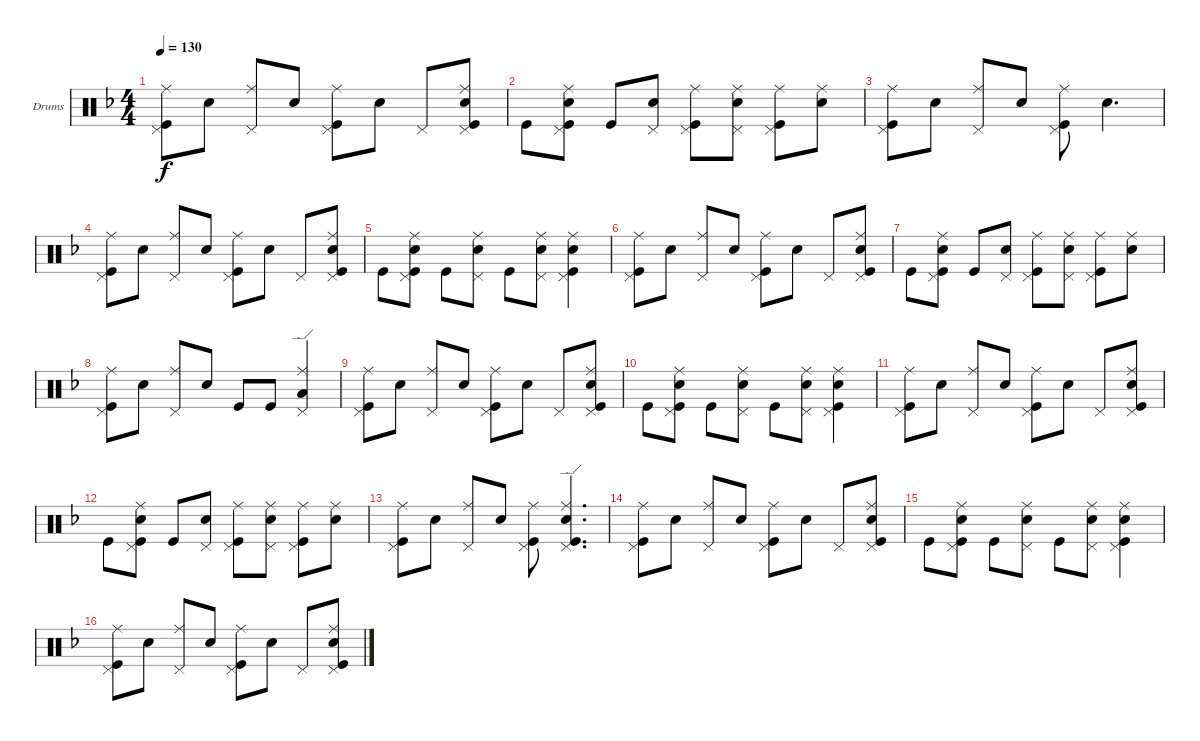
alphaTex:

\defaultSystemsLayout 4
\bracketExtendMode groupsimilarinstruments
\firstSystemTrackNameOrientation horizontal
\otherSystemsTrackNameOrientation horizontal
\track ("Drumkit" "Drums") {instrument percussion}
\staff {score}
\articulation defaults
\ts (4 4)
\tempo 130
\clef neutral
\ks f
("Ride (middle)" "Pedal Hi-Hat (hit)" "Kick (hit)").8{dy f} "Snare (hit) 2".8 ("Ride (middle)" "Pedal Hi-Hat (hit)").8 "Snare (hit) 2".8 ("Pedal Hi-Hat (hit)" "Kick (hit)" "Ride (middle)").8 "Snare (hit) 2".8 "Pedal Hi-Hat (hit)".8 ("Pedal Hi-Hat (hit)" "Snare (hit) 2" "Kick (hit)" "Ride (middle)").8 |
"Kick (hit)".8 ("Ride (middle)" "Pedal Hi-Hat (hit)" "Snare (hit) 2" "Kick (hit)").8 "Kick (hit)".8 ("Pedal Hi-Hat (hit)" "Snare (hit) 2").8 ("Kick (hit)" "Pedal Hi-Hat (hit)" "Ride (middle)").8 ("Pedal Hi-Hat (hit)" "Snare (hit) 2" "Ride (middle)").8 ("Ride (middle)" "Kick (hit)" "Pedal Hi-Hat (hit)").8 ("Ride (middle)" "Snare (hit) 2").8 |
("Ride (middle)" "Pedal Hi-Hat (hit)" "Kick (hit)").8 "Snare (hit) 2".8 ("Ride (middle)" "Pedal Hi-Hat (hit)").8 "Snare (hit) 2".8 ("Pedal Hi-Hat (hit)" "Kick (hit)" "Ride (middle)").8 "Snare (hit) 2".4{d} |
("Ride (middle)" "Pedal Hi-Hat (hit)" "Kick (hit)").8 "Snare (hit) 2".8 ("Ride (middle)" "Pedal Hi-Hat (hit)").8 "Snare (hit) 2".8 ("Pedal Hi-Hat (hit)" "Kick (hit)" "Ride (middle)").8 "Snare (hit) 2".8 "Pedal Hi-Hat (hit)".8 ("Pedal Hi-Hat (hit)" "Snare (hit) 2" "Kick (hit)" "Ride (middle)").8 |
"Kick (hit)".8 ("Ride (middle)" "Pedal Hi-Hat (hit)" "Snare (hit) 2" "Kick (hit)").8 "Kick (hit)".8 ("Ride (middle)" "Pedal Hi-Hat (hit)" "Snare (hit) 2").8 "Kick (hit)".8 ("Pedal Hi-Hat (hit)" "Snare (hit) 2" "Ride (middle)").8 ("Ride (middle)" "Snare (hit) 2" "Kick (hit)" "Pedal Hi-Hat (hit)").4 |
("Ride (middle)" "Pedal Hi-Hat (hit)" "Kick (hit)").8 "Snare (hit) 2".8 ("Ride (middle)" "Pedal Hi-Hat (hit)").8 "Snare (hit) 2".8 ("Pedal Hi-Hat (hit)" "Kick (hit)" "Ride (middle)").8 "Snare (hit) 2".8 "Pedal Hi-Hat (hit)".8 ("Pedal Hi-Hat (hit)" "Snare (hit) 2" "Kick (hit)" "Ride (middle)").8 |
"Kick (hit)".8 ("Ride (middle)" "Pedal Hi-Hat (hit)" "Snare (hit) 2" "Kick (hit)").8 "Kick (hit)".8 ("Pedal Hi-Hat (hit)" "Snare (hit) 2").8 ("Kick (hit)" "Pedal Hi-Hat (hit)" "Ride (middle)").8 ("Pedal Hi-Hat (hit)" "Snare (hit) 2" "Ride (middle)").8 ("Ride (middle)" "Kick (hit)" "Pedal Hi-Hat (hit)").8 ("Ride (middle)" "Snare (hit) 2").8 |
("Ride (middle)" "Pedal Hi-Hat (hit)" "Kick (hit)").8 "Snare (hit) 2".8 ("Ride (middle)" "Pedal Hi-Hat (hit)").8 "Snare (hit) 2".8 "Kick (hit)".8 "Kick (hit)".8 ("Ride (edge)" "Pedal Hi-Hat (hit)" "Low Tom (hit)").4 |
("Ride (middle)" "Pedal Hi-Hat (hit)" "Kick (hit)").8 "Snare (hit) 2".8 ("Ride (middle)" "Pedal Hi-Hat (hit)").8 "Snare (hit) 2".8 ("Pedal Hi-Hat (hit)" "Kick (hit)" "Ride (middle)").8 "Snare (hit) 2".8 "Pedal Hi-Hat (hit)".8 ("Pedal Hi-Hat (hit)" "Snare (hit) 2" "Kick (hit)" "Ride (middle)").8 |
"Kick (hit)".8 ("Ride (middle)" "Pedal Hi-Hat (hit)" "Snare (hit) 2" "Kick (hit)").8 "Kick (hit)".8 ("Ride (middle)" "Pedal Hi-Hat (hit)" "Snare (hit) 2").8 "Kick (hit)".8 ("Pedal Hi-Hat (hit)" "Snare (hit) 2" "Ride (middle)").8 ("Ride (middle)" "Snare (hit) 2" "Kick (hit)" "Pedal Hi-Hat (hit)").4 |
("Ride (middle)" "Pedal Hi-Hat (hit)" "Kick (hit)").8 "Snare (hit) 2".8 ("Ride (middle)" "Pedal Hi-Hat (hit)").8 "Snare (hit) 2".8 ("Pedal Hi-Hat (hit)" "Kick (hit)" "Ride (middle)").8 "Snare (hit) 2".8 "Pedal Hi-Hat (hit)".8 ("Pedal Hi-Hat (hit)" "Snare (hit) 2" "Kick (hit)" "Ride (middle)").8 |
"Kick (hit)".8 ("Ride (middle)" "Pedal Hi-Hat (hit)" "Snare (hit) 2" "Kick (hit)").8 "Kick (hit)".8 ("Pedal Hi-Hat (hit)" "Snare (hit) 2").8 ("Kick (hit)" "Pedal Hi-Hat (hit)" "Ride (middle)").8 ("Pedal Hi-Hat (hit)" "Snare (hit) 2" "Ride (middle)").8 ("Ride (middle)" "Kick (hit)" "Pedal Hi-Hat (hit)").8 ("Ride (middle)" "Snare (hit) 2").8 |
("Ride (middle)" "Pedal Hi-Hat (hit)" "Kick (hit)").8 "Snare (hit) 2".8 ("Ride (middle)" "Pedal Hi-Hat (hit)").8 "Snare (hit) 2".8 ("Pedal Hi-Hat (hit)" "Kick (hit)" "Ride (middle)").8 ("Snare (hit) 2" "Ride (edge)" "Kick (hit)" "Pedal Hi-Hat (hit)").4{d} |
("Ride (middle)" "Pedal Hi-Hat (hit)" "Kick (hit)").8 "Snare (hit) 2".8 ("Ride (middle)" "Pedal Hi-Hat (hit)").8 "Snare (hit) 2".8 ("Pedal Hi-Hat (hit)" "Kick (hit)" "Ride (middle)").8 "Snare (hit) 2".8 "Pedal Hi-Hat (hit)".8 ("Pedal Hi-Hat (hit)" "Snare (hit) 2" "Kick (hit)" "Ride (middle)").8 |
"Kick (hit)".8 ("Ride (middle)" "Pedal Hi-Hat (hit)" "Snare (hit) 2" "Kick (hit)").8 "Kick (hit)".8 ("Ride (middle)" "Pedal Hi-Hat (hit)" "Snare (hit) 2").8 "Kick (hit)".8 ("Pedal Hi-Hat (hit)" "Snare (hit) 2" "Ride (middle)").8 ("Ride (middle)" "Snare (hit) 2" "Kick (hit)" "Pedal Hi-Hat (hit)").4 |
("Ride (middle)" "Pedal Hi-Hat (hit)" "Kick (hit)").8 "Snare (hit) 2".8 ("Ride (middle)" "Pedal Hi-Hat (hit)").8 "Snare (hit) 2".8 ("Pedal Hi-Hat (hit)" "Kick (hit)" "Ride (middle)").8 "Snare (hit) 2".8 "Pedal Hi-Hat (hit)".8 ("Pedal Hi-Hat (hit)" "Snare (hit) 2" "Kick (hit)" "Ride (middle)").8
